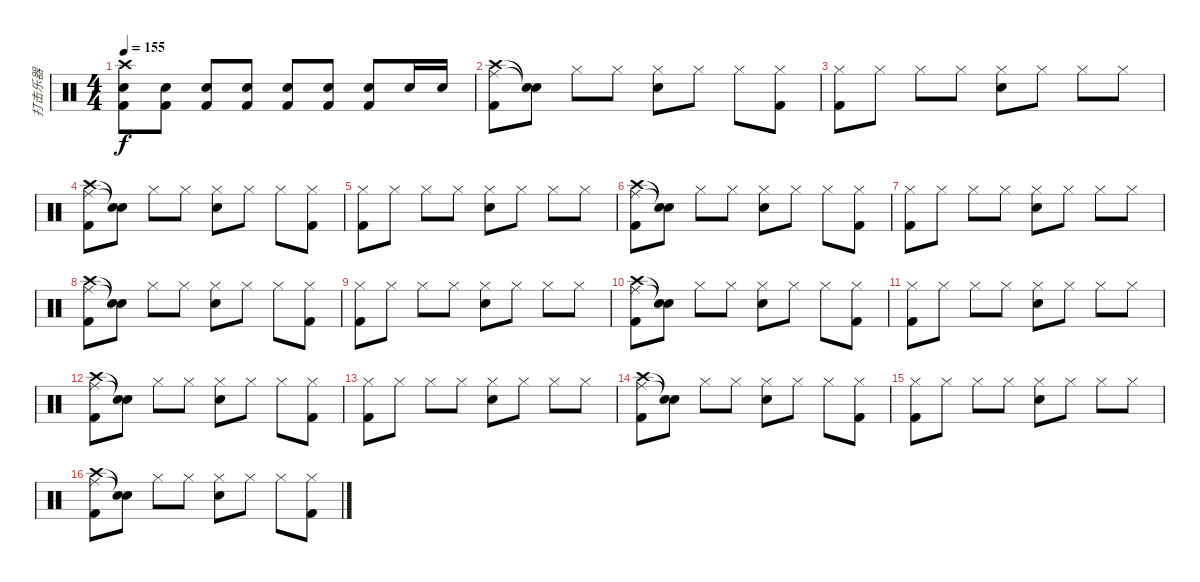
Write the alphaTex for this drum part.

\track ("打击乐器" "打击乐器") {instrument percussion}
\staff {score}
\articulation defaults
\ts (4 4)
\tempo 155
\clef neutral
\ks c
("Crash high (hit)" "Snare (hit) 2" "Kick (hit) 2").8{dy f} ("Snare (hit) 2" "Kick (hit) 2").8 ("Snare (hit) 2" "Kick (hit) 2").8 ("Snare (hit) 2" "Kick (hit) 2").8 ("Snare (hit) 2" "Kick (hit) 2").8 ("Snare (hit) 2" "Kick (hit) 2").8 ("Snare (hit) 2" "Kick (hit) 2").8 "Snare (hit) 2".16 "Snare (hit) 2".16 |
("Crash high (hit)" "Ride (middle)" "Kick (hit) 2").8 ("Snare (hit)"{t} "Snare (hit)"{t}).8 "Hi-Hat (closed)".8 "Hi-Hat (closed)".8 ("Hi-Hat (closed)" "Snare (hit) 2").8 "Hi-Hat (closed)".8 "Hi-Hat (closed)".8 ("Hi-Hat (closed)" "Kick (hit) 2").8 |
("Hi-Hat (closed)" "Kick (hit) 2").8 "Hi-Hat (closed)".8 "Hi-Hat (closed)".8 "Hi-Hat (closed)".8 ("Hi-Hat (closed)" "Snare (hit) 2").8 "Hi-Hat (closed)".8 "Hi-Hat (closed)".8 "Hi-Hat (closed)".8 |
("Crash high (hit)" "Ride (middle)" "Kick (hit) 2").8 ("Snare (hit)"{t} "Snare (hit)"{t}).8 "Hi-Hat (closed)".8 "Hi-Hat (closed)".8 ("Hi-Hat (closed)" "Snare (hit) 2").8 "Hi-Hat (closed)".8 "Hi-Hat (closed)".8 ("Hi-Hat (closed)" "Kick (hit) 2").8 |
("Hi-Hat (closed)" "Kick (hit) 2").8 "Hi-Hat (closed)".8 "Hi-Hat (closed)".8 "Hi-Hat (closed)".8 ("Hi-Hat (closed)" "Snare (hit) 2").8 "Hi-Hat (closed)".8 "Hi-Hat (closed)".8 "Hi-Hat (closed)".8 |
("Crash high (hit)" "Ride (middle)" "Kick (hit) 2").8 ("Snare (hit)"{t} "Snare (hit)"{t}).8 "Hi-Hat (closed)".8 "Hi-Hat (closed)".8 ("Hi-Hat (closed)" "Snare (hit) 2").8 "Hi-Hat (closed)".8 "Hi-Hat (closed)".8 ("Hi-Hat (closed)" "Kick (hit) 2").8 |
("Hi-Hat (closed)" "Kick (hit) 2").8 "Hi-Hat (closed)".8 "Hi-Hat (closed)".8 "Hi-Hat (closed)".8 ("Hi-Hat (closed)" "Snare (hit) 2").8 "Hi-Hat (closed)".8 "Hi-Hat (closed)".8 "Hi-Hat (closed)".8 |
("Crash high (hit)" "Ride (middle)" "Kick (hit) 2").8 ("Snare (hit)"{t} "Snare (hit)"{t}).8 "Hi-Hat (closed)".8 "Hi-Hat (closed)".8 ("Hi-Hat (closed)" "Snare (hit) 2").8 "Hi-Hat (closed)".8 "Hi-Hat (closed)".8 ("Hi-Hat (closed)" "Kick (hit) 2").8 |
("Hi-Hat (closed)" "Kick (hit) 2").8 "Hi-Hat (closed)".8 "Hi-Hat (closed)".8 "Hi-Hat (closed)".8 ("Hi-Hat (closed)" "Snare (hit) 2").8 "Hi-Hat (closed)".8 "Hi-Hat (closed)".8 "Hi-Hat (closed)".8 |
("Crash high (hit)" "Ride (middle)" "Kick (hit) 2").8 ("Snare (hit)"{t} "Snare (hit)"{t}).8 "Hi-Hat (closed)".8 "Hi-Hat (closed)".8 ("Hi-Hat (closed)" "Snare (hit) 2").8 "Hi-Hat (closed)".8 "Hi-Hat (closed)".8 ("Hi-Hat (closed)" "Kick (hit) 2").8 |
("Hi-Hat (closed)" "Kick (hit) 2").8 "Hi-Hat (closed)".8 "Hi-Hat (closed)".8 "Hi-Hat (closed)".8 ("Hi-Hat (closed)" "Snare (hit) 2").8 "Hi-Hat (closed)".8 "Hi-Hat (closed)".8 "Hi-Hat (closed)".8 |
("Crash high (hit)" "Ride (middle)" "Kick (hit) 2").8 ("Snare (hit)"{t} "Snare (hit)"{t}).8 "Hi-Hat (closed)".8 "Hi-Hat (closed)".8 ("Hi-Hat (closed)" "Snare (hit) 2").8 "Hi-Hat (closed)".8 "Hi-Hat (closed)".8 ("Hi-Hat (closed)" "Kick (hit) 2").8 |
("Hi-Hat (closed)" "Kick (hit) 2").8 "Hi-Hat (closed)".8 "Hi-Hat (closed)".8 "Hi-Hat (closed)".8 ("Hi-Hat (closed)" "Snare (hit) 2").8 "Hi-Hat (closed)".8 "Hi-Hat (closed)".8 "Hi-Hat (closed)".8 |
("Crash high (hit)" "Ride (middle)" "Kick (hit) 2").8 ("Snare (hit)"{t} "Snare (hit)"{t}).8 "Hi-Hat (closed)".8 "Hi-Hat (closed)".8 ("Hi-Hat (closed)" "Snare (hit) 2").8 "Hi-Hat (closed)".8 "Hi-Hat (closed)".8 ("Hi-Hat (closed)" "Kick (hit) 2").8 |
("Hi-Hat (closed)" "Kick (hit) 2").8 "Hi-Hat (closed)".8 "Hi-Hat (closed)".8 "Hi-Hat (closed)".8 ("Hi-Hat (closed)" "Snare (hit) 2").8 "Hi-Hat (closed)".8 "Hi-Hat (closed)".8 "Hi-Hat (closed)".8 |
("Crash high (hit)" "Ride (middle)" "Kick (hit) 2").8 ("Snare (hit)"{t} "Snare (hit)"{t}).8 "Hi-Hat (closed)".8 "Hi-Hat (closed)".8 ("Hi-Hat (closed)" "Snare (hit) 2").8 "Hi-Hat (closed)".8 "Hi-Hat (closed)".8 ("Hi-Hat (closed)" "Kick (hit) 2").8
